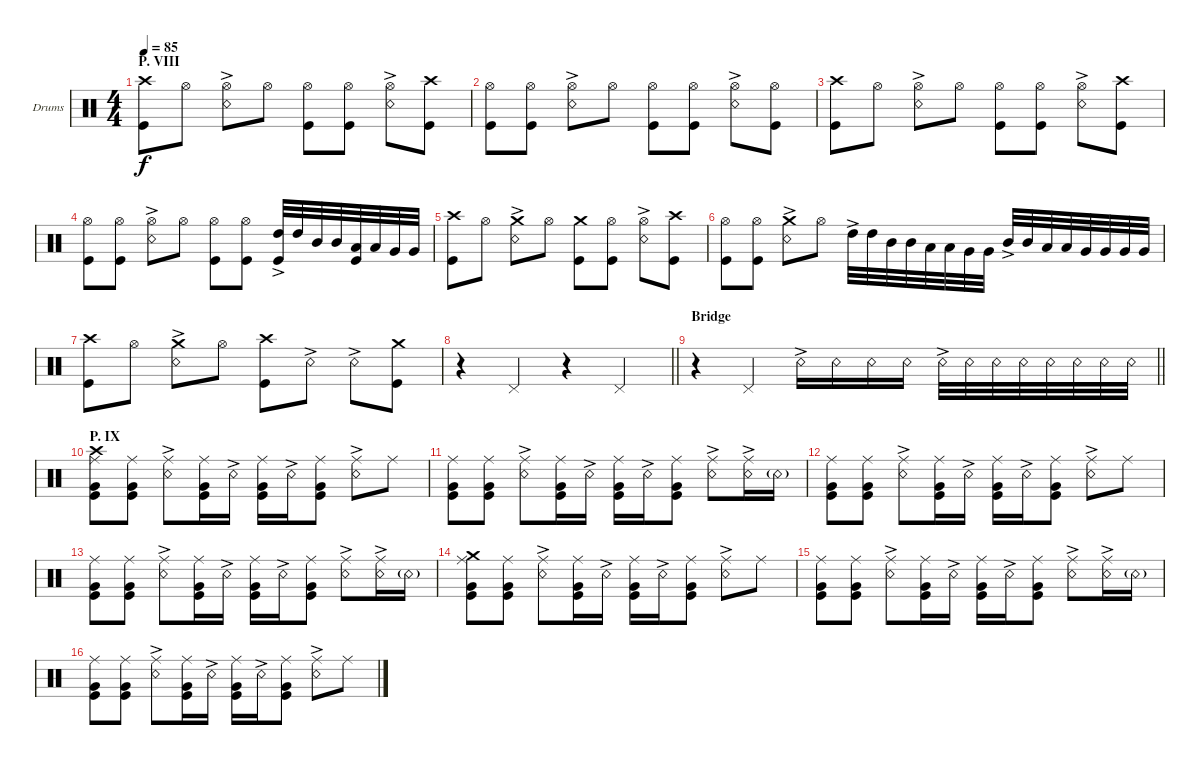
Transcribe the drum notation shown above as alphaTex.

\bracketExtendMode groupsimilarinstruments
\firstSystemTrackNameOrientation horizontal
\otherSystemsTrackNameOrientation horizontal
\track ("Drumkit" "Drums") {instrument percussion}
\staff {score}
\articulation defaults
\ts (4 4)
\section ("" "P. VIII")
\tempo 85
\clef neutral
\ks c
("Kick (hit)" "Crash high (hit)").8{dy f} "Hi-Hat (open)".8 ("Hi-Hat (open)" "Snare (rim shot)"{ac}).8 "Hi-Hat (open)".8 ("Hi-Hat (open)" "Kick (hit)").8 ("Hi-Hat (open)" "Kick (hit)").8 ("Hi-Hat (open)" "Snare (rim shot)"{ac}).8 ("Kick (hit)" "Crash high (hit)").8 |
("Hi-Hat (open)" "Kick (hit)").8 ("Hi-Hat (open)" "Kick (hit)").8 ("Hi-Hat (open)" "Snare (rim shot)"{ac}).8 "Hi-Hat (open)".8 ("Hi-Hat (open)" "Kick (hit)").8 ("Hi-Hat (open)" "Kick (hit)").8 ("Hi-Hat (open)" "Snare (rim shot)"{ac}).8 ("Hi-Hat (open)" "Kick (hit)").8 |
("Kick (hit)" "Crash high (hit)").8 "Hi-Hat (open)".8 ("Hi-Hat (open)" "Snare (rim shot)"{ac}).8 "Hi-Hat (open)".8 ("Hi-Hat (open)" "Kick (hit)").8 ("Hi-Hat (open)" "Kick (hit)").8 ("Hi-Hat (open)" "Snare (rim shot)"{ac}).8 ("Kick (hit)" "Crash high (hit)").8 |
("Hi-Hat (open)" "Kick (hit)").8 ("Hi-Hat (open)" "Kick (hit)").8 ("Hi-Hat (open)" "Snare (rim shot)"{ac}).8 "Hi-Hat (open)".8 ("Hi-Hat (open)" "Kick (hit)").8 ("Hi-Hat (open)" "Kick (hit)").8 ("High Tom (hit)"{ac} "Kick (hit)").32 "High Tom (hit)".32 "Mid Tom (hit)".32 "Mid Tom (hit)".32 ("Low Tom (hit)" "Kick (hit)").32 "Low Tom (hit)".32 "Very Low Tom (hit)".32 "Very Low Tom (hit)".32 |
("Kick (hit)" "Crash high (hit)").8 "Hi-Hat (open)".8 ("Snare (rim shot)"{ac} "Crash medium (hit)").8 "Hi-Hat (open)".8 ("Kick (hit)" "Crash medium (hit)").8 ("Hi-Hat (open)" "Kick (hit)").8 ("Hi-Hat (open)" "Snare (rim shot)"{ac}).8 ("Kick (hit)" "Crash high (hit)").8 |
("Hi-Hat (open)" "Kick (hit)").8 ("Hi-Hat (open)" "Kick (hit)").8 ("Crash medium (hit)" "Snare (rim shot)"{ac}).8 "Hi-Hat (open)".8 "High Tom (hit)"{ac}.32 "High Tom (hit)".32 "Mid Tom (hit)".32 "Mid Tom (hit)".32 "Low Tom (hit)".32 "Low Tom (hit)".32 "Very Low Tom (hit)".32 "Very Low Tom (hit)".32 "Mid Tom (hit)"{ac}.32 "Mid Tom (hit)".32 "Low Tom (hit)".32 "Low Tom (hit)".32 "Very Low Tom (hit)".32 "Very Low Tom (hit)".32 "Very Low Tom (hit)".32 "Very Low Tom (hit)".32 |
("Kick (hit)" "Crash high (hit)").8 "Hi-Hat (open)".8 ("Snare (rim shot)"{ac} "Crash medium (hit)").8 "Hi-Hat (open)".8 ("Kick (hit)" "Crash high (hit)").8 "Snare (rim shot)"{ac}.8 "Snare (rim shot)"{ac}.8 ("Kick (hit)" "Crash medium (hit)").8 |
\barLineRight lightlight
r.4 "Pedal Hi-Hat (hit)".4 r.4 "Pedal Hi-Hat (hit)".4 |
\section ("" "Bridge")
\barLineRight lightlight
r.4 "Pedal Hi-Hat (hit)".4 "Snare (rim shot)"{ac}.16 "Snare (rim shot)".16 "Snare (rim shot)".16 "Snare (rim shot)".16 "Snare (rim shot)"{ac}.32 "Snare (rim shot)".32 "Snare (rim shot)".32 "Snare (rim shot)".32 "Snare (rim shot)".32 "Snare (rim shot)".32 "Snare (rim shot)".32 "Snare (rim shot)".32 |
\section ("" "P. IX")
("Ride (middle)" "Kick (hit)" "Crash high (hit)" "Very Low Tom (hit)").8 ("Ride (middle)" "Kick (hit)" "Very Low Tom (hit)").8 ("Ride (middle)" "Snare (rim shot)"{ac}).8 ("Ride (middle)" "Kick (hit)" "Very Low Tom (hit)").16 "Snare (rim shot)"{ac}.16 ("Ride (middle)" "Kick (hit)" "Very Low Tom (hit)").16 "Snare (rim shot)"{ac}.16 ("Ride (middle)" "Kick (hit)" "Very Low Tom (hit)").8 ("Ride (middle)" "Snare (rim shot)"{ac}).8 "Ride (middle)".8 |
("Ride (middle)" "Kick (hit)" "Very Low Tom (hit)").8 ("Ride (middle)" "Kick (hit)" "Very Low Tom (hit)").8 ("Ride (middle)" "Snare (rim shot)"{ac}).8 ("Ride (middle)" "Kick (hit)" "Very Low Tom (hit)").16 "Snare (rim shot)"{ac}.16 ("Ride (middle)" "Kick (hit)" "Very Low Tom (hit)").16 "Snare (rim shot)"{ac}.16 ("Ride (middle)" "Kick (hit)" "Very Low Tom (hit)").8 ("Ride (middle)" "Snare (rim shot)"{ac}).8 ("Ride (middle)" "Snare (rim shot)"{ac}).16 "Snare (rim shot)"{g}.16 |
("Ride (middle)" "Kick (hit)" "Very Low Tom (hit)").8 ("Ride (middle)" "Kick (hit)" "Very Low Tom (hit)").8 ("Ride (middle)" "Snare (rim shot)"{ac}).8 ("Ride (middle)" "Kick (hit)" "Very Low Tom (hit)").16 "Snare (rim shot)"{ac}.16 ("Ride (middle)" "Kick (hit)" "Very Low Tom (hit)").16 "Snare (rim shot)"{ac}.16 ("Ride (middle)" "Kick (hit)" "Very Low Tom (hit)").8 ("Ride (middle)" "Snare (rim shot)"{ac}).8 "Ride (middle)".8 |
("Ride (middle)" "Kick (hit)" "Very Low Tom (hit)").8 ("Ride (middle)" "Kick (hit)" "Very Low Tom (hit)").8 ("Ride (middle)" "Snare (rim shot)"{ac}).8 ("Ride (middle)" "Kick (hit)" "Very Low Tom (hit)").16 "Snare (rim shot)"{ac}.16 ("Ride (middle)" "Kick (hit)" "Very Low Tom (hit)").16 "Snare (rim shot)"{ac}.16 ("Ride (middle)" "Kick (hit)" "Very Low Tom (hit)").8 ("Ride (middle)" "Snare (rim shot)"{ac}).8 ("Ride (middle)" "Snare (rim shot)"{ac}).16 "Snare (rim shot)"{g}.16 |
("Ride (middle)" "Kick (hit)" "Crash medium (hit)" "Very Low Tom (hit)").8 ("Ride (middle)" "Kick (hit)" "Very Low Tom (hit)").8 ("Ride (middle)" "Snare (rim shot)"{ac}).8 ("Ride (middle)" "Kick (hit)" "Very Low Tom (hit)").16 "Snare (rim shot)"{ac}.16 ("Ride (middle)" "Kick (hit)" "Very Low Tom (hit)").16 "Snare (rim shot)"{ac}.16 ("Ride (middle)" "Kick (hit)" "Very Low Tom (hit)").8 ("Ride (middle)" "Snare (rim shot)"{ac}).8 "Ride (middle)".8 |
("Ride (middle)" "Kick (hit)" "Very Low Tom (hit)").8 ("Ride (middle)" "Kick (hit)" "Very Low Tom (hit)").8 ("Ride (middle)" "Snare (rim shot)"{ac}).8 ("Ride (middle)" "Kick (hit)" "Very Low Tom (hit)").16 "Snare (rim shot)"{ac}.16 ("Ride (middle)" "Kick (hit)" "Very Low Tom (hit)").16 "Snare (rim shot)"{ac}.16 ("Ride (middle)" "Kick (hit)" "Very Low Tom (hit)").8 ("Ride (middle)" "Snare (rim shot)"{ac}).8 ("Ride (middle)" "Snare (rim shot)"{ac}).16 "Snare (rim shot)"{g}.16 |
("Ride (middle)" "Kick (hit)" "Very Low Tom (hit)").8 ("Ride (middle)" "Kick (hit)" "Very Low Tom (hit)").8 ("Ride (middle)" "Snare (rim shot)"{ac}).8 ("Ride (middle)" "Kick (hit)" "Very Low Tom (hit)").16 "Snare (rim shot)"{ac}.16 ("Ride (middle)" "Kick (hit)" "Very Low Tom (hit)").16 "Snare (rim shot)"{ac}.16 ("Ride (middle)" "Kick (hit)" "Very Low Tom (hit)").8 ("Ride (middle)" "Snare (rim shot)"{ac}).8 "Ride (middle)".8
